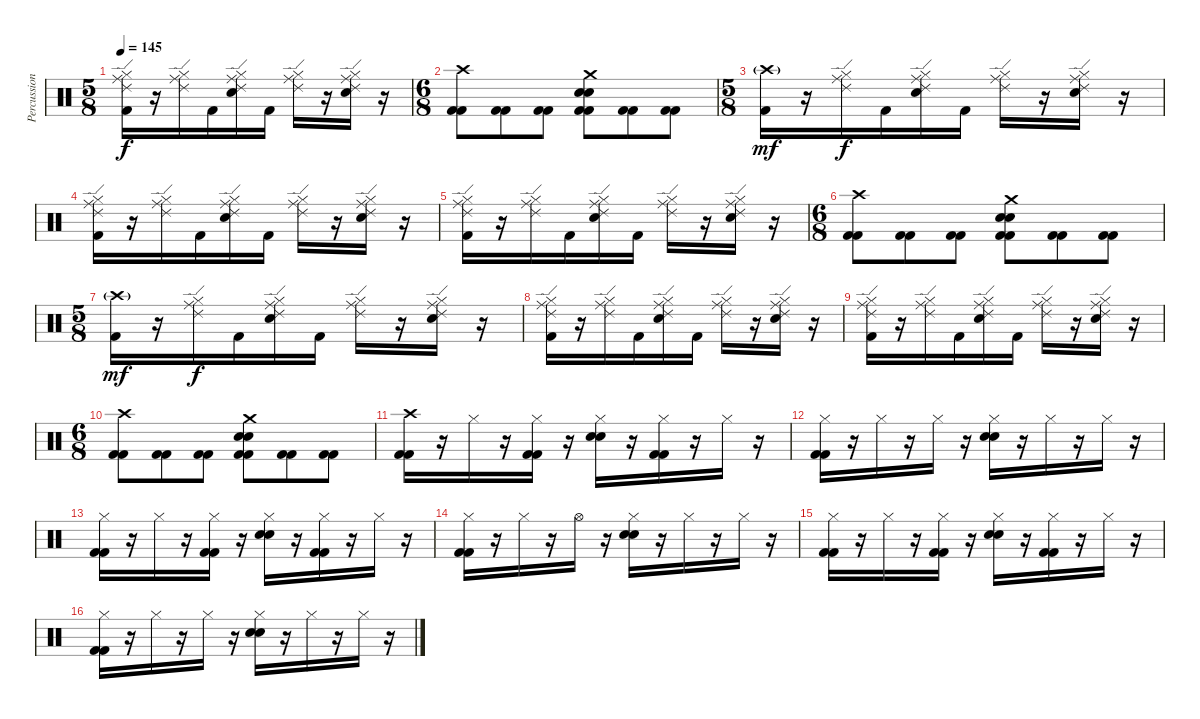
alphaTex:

\track ("Percussion" "Percussion") {instrument percussion}
\staff {score}
\articulation defaults
\ts (5 8)
\tempo 145
\clef neutral
\ks c
("Ride (middle)" "Kick (hit) 2" "Ride (edge) 2" "Hi-Hat (closed)").16{dy f} r.16 ("Ride (middle)" "Ride (edge) 2" "Hi-Hat (closed)").16 "Kick (hit) 2".16 ("Ride (middle)" "Electric Snare (hit)" "Ride (edge) 2" "Hi-Hat (closed)").16 "Kick (hit) 2".16 ("Ride (middle)" "Ride (edge) 2" "Hi-Hat (closed)").16 r.16 ("Ride (middle)" "Electric Snare (hit)" "Ride (edge) 2" "Hi-Hat (closed)").16 r.16 |
\ts (6 8)
("Crash high (hit)" "Kick (hit) 2" "Kick (hit) 2").8 ("Kick (hit) 2" "Kick (hit) 2").8 ("Kick (hit) 2" "Kick (hit) 2").8 ("Crash medium (hit)" "Electric Snare (hit)" "Electric Snare (hit)" "Kick (hit) 2" "Kick (hit) 2").8 ("Kick (hit) 2" "Kick (hit) 2").8 ("Kick (hit) 2" "Kick (hit) 2").8 |
\ts (5 8)
("Crash high (hit)"{g} "Kick (hit) 2").16{dy mf} r.16 ("Ride (middle)" "Ride (edge) 2" "Hi-Hat (closed)").16{dy f} "Kick (hit) 2".16 ("Ride (middle)" "Electric Snare (hit)" "Ride (edge) 2" "Hi-Hat (closed)").16 "Kick (hit) 2".16 ("Ride (middle)" "Ride (edge) 2" "Hi-Hat (closed)").16 r.16 ("Ride (middle)" "Electric Snare (hit)" "Ride (edge) 2" "Hi-Hat (closed)").16 r.16 |
("Ride (middle)" "Kick (hit) 2" "Ride (edge) 2" "Hi-Hat (closed)").16 r.16 ("Ride (middle)" "Ride (edge) 2" "Hi-Hat (closed)").16 "Kick (hit) 2".16 ("Ride (middle)" "Electric Snare (hit)" "Ride (edge) 2" "Hi-Hat (closed)").16 "Kick (hit) 2".16 ("Ride (middle)" "Ride (edge) 2" "Hi-Hat (closed)").16 r.16 ("Ride (middle)" "Electric Snare (hit)" "Ride (edge) 2" "Hi-Hat (closed)").16 r.16 |
("Ride (middle)" "Kick (hit) 2" "Ride (edge) 2" "Hi-Hat (closed)").16 r.16 ("Ride (middle)" "Ride (edge) 2" "Hi-Hat (closed)").16 "Kick (hit) 2".16 ("Ride (middle)" "Electric Snare (hit)" "Ride (edge) 2" "Hi-Hat (closed)").16 "Kick (hit) 2".16 ("Ride (middle)" "Ride (edge) 2" "Hi-Hat (closed)").16 r.16 ("Ride (middle)" "Electric Snare (hit)" "Ride (edge) 2" "Hi-Hat (closed)").16 r.16 |
\ts (6 8)
("Crash high (hit)" "Kick (hit) 2" "Kick (hit) 2").8 ("Kick (hit) 2" "Kick (hit) 2").8 ("Kick (hit) 2" "Kick (hit) 2").8 ("Crash medium (hit)" "Electric Snare (hit)" "Electric Snare (hit)" "Kick (hit) 2" "Kick (hit) 2").8 ("Kick (hit) 2" "Kick (hit) 2").8 ("Kick (hit) 2" "Kick (hit) 2").8 |
\ts (5 8)
("Crash high (hit)"{g} "Kick (hit) 2").16{dy mf} r.16 ("Ride (middle)" "Ride (edge) 2" "Hi-Hat (closed)").16{dy f} "Kick (hit) 2".16 ("Ride (middle)" "Electric Snare (hit)" "Ride (edge) 2" "Hi-Hat (closed)").16 "Kick (hit) 2".16 ("Ride (middle)" "Ride (edge) 2" "Hi-Hat (closed)").16 r.16 ("Ride (middle)" "Electric Snare (hit)" "Ride (edge) 2" "Hi-Hat (closed)").16 r.16 |
("Ride (middle)" "Kick (hit) 2" "Ride (edge) 2" "Hi-Hat (closed)").16 r.16 ("Ride (middle)" "Ride (edge) 2" "Hi-Hat (closed)").16 "Kick (hit) 2".16 ("Ride (middle)" "Electric Snare (hit)" "Ride (edge) 2" "Hi-Hat (closed)").16 "Kick (hit) 2".16 ("Ride (middle)" "Ride (edge) 2" "Hi-Hat (closed)").16 r.16 ("Ride (middle)" "Electric Snare (hit)" "Ride (edge) 2" "Hi-Hat (closed)").16 r.16 |
("Ride (middle)" "Kick (hit) 2" "Ride (edge) 2" "Hi-Hat (closed)").16 r.16 ("Ride (middle)" "Ride (edge) 2" "Hi-Hat (closed)").16 "Kick (hit) 2".16 ("Ride (middle)" "Electric Snare (hit)" "Ride (edge) 2" "Hi-Hat (closed)").16 "Kick (hit) 2".16 ("Ride (middle)" "Ride (edge) 2" "Hi-Hat (closed)").16 r.16 ("Ride (middle)" "Electric Snare (hit)" "Ride (edge) 2" "Hi-Hat (closed)").16 r.16 |
\ts (6 8)
("Crash high (hit)" "Kick (hit) 2" "Kick (hit) 2").8 ("Kick (hit) 2" "Kick (hit) 2").8 ("Kick (hit) 2" "Kick (hit) 2").8 ("Crash medium (hit)" "Electric Snare (hit)" "Electric Snare (hit)" "Kick (hit) 2" "Kick (hit) 2").8 ("Kick (hit) 2" "Kick (hit) 2").8 ("Kick (hit) 2" "Kick (hit) 2").8 |
("Crash high (hit)" "Kick (hit) 2" "Kick (hit) 2").16 r.16 "Hi-Hat (closed)".16 r.16 ("Hi-Hat (closed)" "Kick (hit) 2" "Kick (hit) 2").16 r.16 ("Hi-Hat (closed)" "Electric Snare (hit)" "Electric Snare (hit)").16 r.16 ("Hi-Hat (closed)" "Kick (hit) 2" "Kick (hit) 2").16 r.16 "Hi-Hat (closed)".16 r.16 |
("Hi-Hat (closed)" "Kick (hit) 2" "Kick (hit) 2").16 r.16 "Hi-Hat (closed)".16 r.16 "Hi-Hat (closed)".16 r.16 ("Hi-Hat (closed)" "Electric Snare (hit)" "Electric Snare (hit)").16 r.16 "Hi-Hat (closed)".16 r.16 "Hi-Hat (closed)".16 r.16 |
("Hi-Hat (closed)" "Kick (hit) 2" "Kick (hit) 2").16 r.16 "Hi-Hat (closed)".16 r.16 ("Hi-Hat (closed)" "Kick (hit) 2" "Kick (hit) 2").16 r.16 ("Hi-Hat (closed)" "Electric Snare (hit)" "Electric Snare (hit)").16 r.16 ("Hi-Hat (closed)" "Kick (hit) 2" "Kick (hit) 2").16 r.16 "Hi-Hat (closed)".16 r.16 |
("Hi-Hat (closed)" "Kick (hit) 2" "Kick (hit) 2").16 r.16 "Hi-Hat (closed)".16 r.16 "Hi-Hat (open)".16 r.16 ("Hi-Hat (closed)" "Electric Snare (hit)" "Electric Snare (hit)").16 r.16 "Hi-Hat (closed)".16 r.16 "Hi-Hat (closed)".16 r.16 |
("Hi-Hat (closed)" "Kick (hit) 2" "Kick (hit) 2").16 r.16 "Hi-Hat (closed)".16 r.16 ("Hi-Hat (closed)" "Kick (hit) 2" "Kick (hit) 2").16 r.16 ("Hi-Hat (closed)" "Electric Snare (hit)" "Electric Snare (hit)").16 r.16 ("Hi-Hat (closed)" "Kick (hit) 2" "Kick (hit) 2").16 r.16 "Hi-Hat (closed)".16 r.16 |
("Hi-Hat (closed)" "Kick (hit) 2" "Kick (hit) 2").16 r.16 "Hi-Hat (closed)".16 r.16 "Hi-Hat (closed)".16 r.16 ("Hi-Hat (closed)" "Electric Snare (hit)" "Electric Snare (hit)").16 r.16 "Hi-Hat (closed)".16 r.16 "Hi-Hat (closed)".16 r.16
